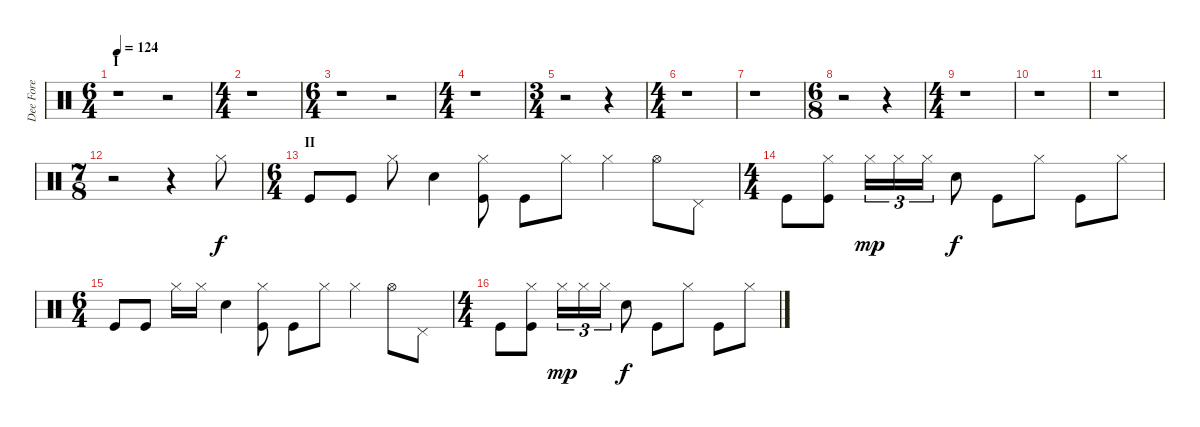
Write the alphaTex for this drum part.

\track ("Dee Fore" "Dee Fore") {instrument percussion}
\staff {score}
\articulation defaults
\ts (6 4)
\section ("" "I")
\tempo 124
\clef neutral
\ks c
r.1{dy f} r.2 |
\ts (4 4)
r.1 |
\ts (6 4)
r.1 r.2 |
\ts (4 4)
r.1 |
\ts (3 4)
r.2 r.4 |
\ts (4 4)
r.1 |
r.1 |
\ts (6 8)
r.2 r.4 |
\ts (4 4)
r.1 |
r.1 |
r.1 |
\ts (7 8)
r.2 r.4 "Hi-Hat (closed)".8 |
\ts (6 4)
\section ("" "II")
"Kick (hit)".8 "Kick (hit)".8 "Hi-Hat (closed)".8 "Electric Snare (hit)".4 ("Hi-Hat (closed)" "Kick (hit)").8 "Kick (hit)".8 "Hi-Hat (closed)".8 "Hi-Hat (closed)".4 "Hi-Hat (open)".8 "Pedal Hi-Hat (hit)".8 |
\ts (4 4)
"Kick (hit)".8 ("Hi-Hat (closed)" "Kick (hit)").8 "Hi-Hat (closed)".16{tu (3 2) dy mp} "Hi-Hat (closed)".16{tu (3 2)} "Hi-Hat (closed)".16{tu (3 2)} "Electric Snare (hit)".8{dy f} "Kick (hit)".8 "Hi-Hat (closed)".8 "Kick (hit)".8 "Hi-Hat (closed)".8 |
\ts (6 4)
"Kick (hit)".8 "Kick (hit)".8 "Hi-Hat (closed)".16 "Hi-Hat (closed)".16 "Electric Snare (hit)".4 ("Hi-Hat (closed)" "Kick (hit)").8 "Kick (hit)".8 "Hi-Hat (closed)".8 "Hi-Hat (closed)".4 "Hi-Hat (open)".8 "Pedal Hi-Hat (hit)".8 |
\ts (4 4)
"Kick (hit)".8 ("Hi-Hat (closed)" "Kick (hit)").8 "Hi-Hat (closed)".16{tu (3 2) dy mp} "Hi-Hat (closed)".16{tu (3 2)} "Hi-Hat (closed)".16{tu (3 2)} "Electric Snare (hit)".8{dy f} "Kick (hit)".8 "Hi-Hat (closed)".8 "Kick (hit)".8 "Hi-Hat (closed)".8
